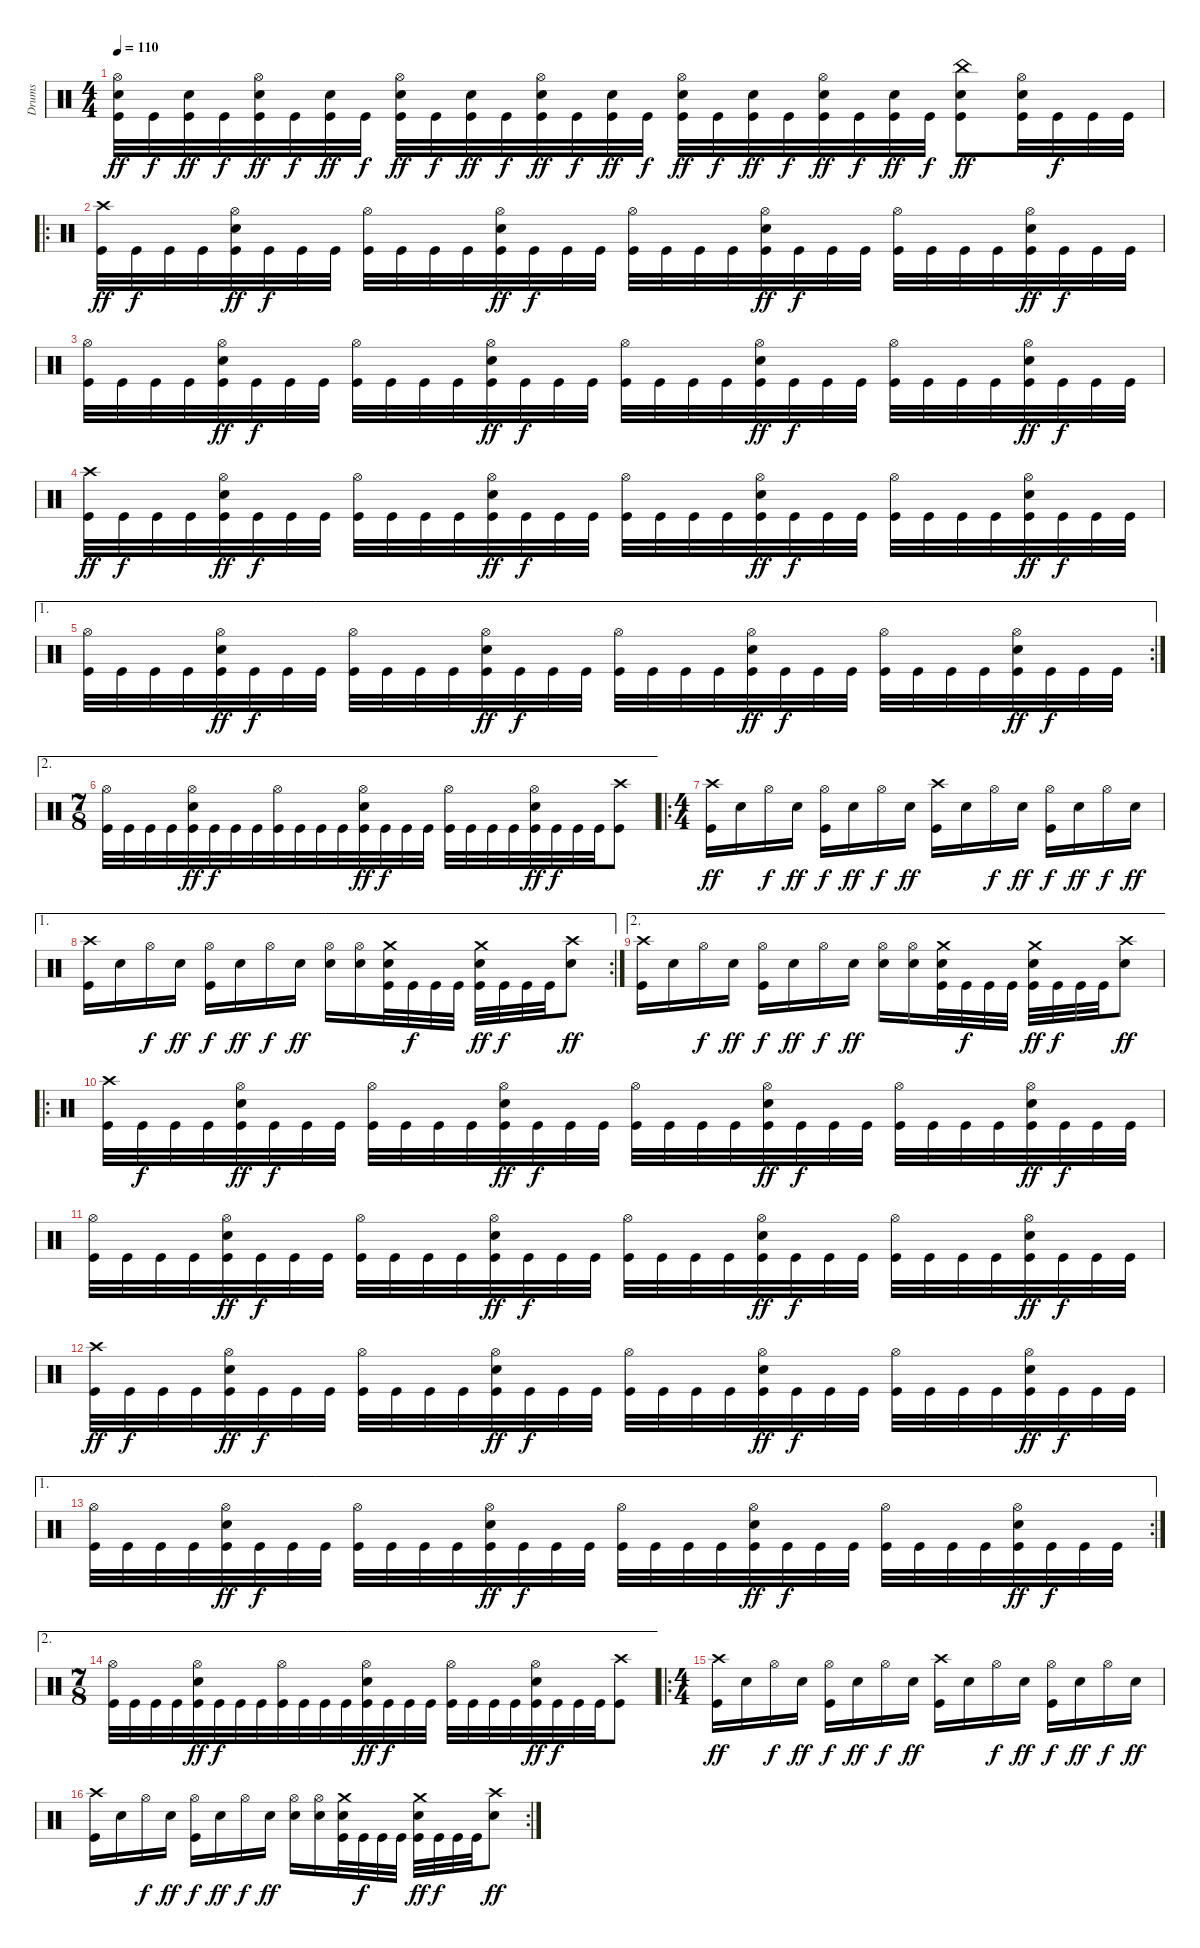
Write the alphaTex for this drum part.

\track ("Drums" "Drums") {instrument percussion}
\staff {score}
\articulation defaults
\ts (4 4)
\tempo 110
\clef neutral
\ks c
("Kick (hit)" "Electric Snare (hit)" "Hi-Hat (open)").32{dy ff} "Kick (hit)".32{dy f} ("Kick (hit)" "Electric Snare (hit)").32{dy ff} "Kick (hit)".32{dy f} ("Kick (hit)" "Electric Snare (hit)" "Hi-Hat (open)").32{dy ff} "Kick (hit)".32{dy f} ("Kick (hit)" "Electric Snare (hit)").32{dy ff} "Kick (hit)".32{dy f} ("Kick (hit)" "Electric Snare (hit)" "Hi-Hat (open)").32{dy ff} "Kick (hit)".32{dy f} ("Kick (hit)" "Electric Snare (hit)").32{dy ff} "Kick (hit)".32{dy f} ("Kick (hit)" "Electric Snare (hit)" "Hi-Hat (open)").32{dy ff} "Kick (hit)".32{dy f} ("Kick (hit)" "Electric Snare (hit)").32{dy ff} "Kick (hit)".32{dy f} ("Kick (hit)" "Electric Snare (hit)" "Hi-Hat (open)").32{dy ff} "Kick (hit)".32{dy f} ("Kick (hit)" "Electric Snare (hit)").32{dy ff} "Kick (hit)".32{dy f} ("Kick (hit)" "Electric Snare (hit)" "Hi-Hat (open)").32{dy ff} "Kick (hit)".32{dy f} ("Kick (hit)" "Electric Snare (hit)").32{dy ff} "Kick (hit)".32{dy f} ("Kick (hit)" "Electric Snare (hit)" "China (hit)").8{dy ff} ("Kick (hit)" "Electric Snare (hit)" "Hi-Hat (open)").32 "Kick (hit)".32{dy f} "Kick (hit)".32 "Kick (hit)".32 |
\ro
("Kick (hit)" "Crash high (hit)").32{dy ff} "Kick (hit)".32{dy f} "Kick (hit)".32 "Kick (hit)".32 ("Kick (hit)" "Electric Snare (hit)" "Hi-Hat (open)").32{dy ff} "Kick (hit)".32{dy f} "Kick (hit)".32 "Kick (hit)".32 ("Kick (hit)" "Hi-Hat (open)").32 "Kick (hit)".32 "Kick (hit)".32 "Kick (hit)".32 ("Kick (hit)" "Electric Snare (hit)" "Hi-Hat (open)").32{dy ff} "Kick (hit)".32{dy f} "Kick (hit)".32 "Kick (hit)".32 ("Kick (hit)" "Hi-Hat (open)").32 "Kick (hit)".32 "Kick (hit)".32 "Kick (hit)".32 ("Kick (hit)" "Electric Snare (hit)" "Hi-Hat (open)").32{dy ff} "Kick (hit)".32{dy f} "Kick (hit)".32 "Kick (hit)".32 ("Kick (hit)" "Hi-Hat (open)").32 "Kick (hit)".32 "Kick (hit)".32 "Kick (hit)".32 ("Kick (hit)" "Electric Snare (hit)" "Hi-Hat (open)").32{dy ff} "Kick (hit)".32{dy f} "Kick (hit)".32 "Kick (hit)".32 |
("Kick (hit)" "Hi-Hat (open)").32 "Kick (hit)".32 "Kick (hit)".32 "Kick (hit)".32 ("Kick (hit)" "Electric Snare (hit)" "Hi-Hat (open)").32{dy ff} "Kick (hit)".32{dy f} "Kick (hit)".32 "Kick (hit)".32 ("Kick (hit)" "Hi-Hat (open)").32 "Kick (hit)".32 "Kick (hit)".32 "Kick (hit)".32 ("Kick (hit)" "Electric Snare (hit)" "Hi-Hat (open)").32{dy ff} "Kick (hit)".32{dy f} "Kick (hit)".32 "Kick (hit)".32 ("Kick (hit)" "Hi-Hat (open)").32 "Kick (hit)".32 "Kick (hit)".32 "Kick (hit)".32 ("Kick (hit)" "Electric Snare (hit)" "Hi-Hat (open)").32{dy ff} "Kick (hit)".32{dy f} "Kick (hit)".32 "Kick (hit)".32 ("Kick (hit)" "Hi-Hat (open)").32 "Kick (hit)".32 "Kick (hit)".32 "Kick (hit)".32 ("Kick (hit)" "Electric Snare (hit)" "Hi-Hat (open)").32{dy ff} "Kick (hit)".32{dy f} "Kick (hit)".32 "Kick (hit)".32 |
("Kick (hit)" "Crash high (hit)").32{dy ff} "Kick (hit)".32{dy f} "Kick (hit)".32 "Kick (hit)".32 ("Kick (hit)" "Electric Snare (hit)" "Hi-Hat (open)").32{dy ff} "Kick (hit)".32{dy f} "Kick (hit)".32 "Kick (hit)".32 ("Kick (hit)" "Hi-Hat (open)").32 "Kick (hit)".32 "Kick (hit)".32 "Kick (hit)".32 ("Kick (hit)" "Electric Snare (hit)" "Hi-Hat (open)").32{dy ff} "Kick (hit)".32{dy f} "Kick (hit)".32 "Kick (hit)".32 ("Kick (hit)" "Hi-Hat (open)").32 "Kick (hit)".32 "Kick (hit)".32 "Kick (hit)".32 ("Kick (hit)" "Electric Snare (hit)" "Hi-Hat (open)").32{dy ff} "Kick (hit)".32{dy f} "Kick (hit)".32 "Kick (hit)".32 ("Kick (hit)" "Hi-Hat (open)").32 "Kick (hit)".32 "Kick (hit)".32 "Kick (hit)".32 ("Kick (hit)" "Electric Snare (hit)" "Hi-Hat (open)").32{dy ff} "Kick (hit)".32{dy f} "Kick (hit)".32 "Kick (hit)".32 |
\ae 1
\rc 2
("Kick (hit)" "Hi-Hat (open)").32 "Kick (hit)".32 "Kick (hit)".32 "Kick (hit)".32 ("Kick (hit)" "Electric Snare (hit)" "Hi-Hat (open)").32{dy ff} "Kick (hit)".32{dy f} "Kick (hit)".32 "Kick (hit)".32 ("Kick (hit)" "Hi-Hat (open)").32 "Kick (hit)".32 "Kick (hit)".32 "Kick (hit)".32 ("Kick (hit)" "Electric Snare (hit)" "Hi-Hat (open)").32{dy ff} "Kick (hit)".32{dy f} "Kick (hit)".32 "Kick (hit)".32 ("Kick (hit)" "Hi-Hat (open)").32 "Kick (hit)".32 "Kick (hit)".32 "Kick (hit)".32 ("Kick (hit)" "Electric Snare (hit)" "Hi-Hat (open)").32{dy ff} "Kick (hit)".32{dy f} "Kick (hit)".32 "Kick (hit)".32 ("Kick (hit)" "Hi-Hat (open)").32 "Kick (hit)".32 "Kick (hit)".32 "Kick (hit)".32 ("Kick (hit)" "Electric Snare (hit)" "Hi-Hat (open)").32{dy ff} "Kick (hit)".32{dy f} "Kick (hit)".32 "Kick (hit)".32 |
\ae 2
\ts (7 8)
("Kick (hit)" "Hi-Hat (open)").32 "Kick (hit)".32 "Kick (hit)".32 "Kick (hit)".32 ("Kick (hit)" "Electric Snare (hit)" "Hi-Hat (open)").32{dy ff} "Kick (hit)".32{dy f} "Kick (hit)".32 "Kick (hit)".32 ("Kick (hit)" "Hi-Hat (open)").32 "Kick (hit)".32 "Kick (hit)".32 "Kick (hit)".32 ("Kick (hit)" "Electric Snare (hit)" "Hi-Hat (open)").32{dy ff} "Kick (hit)".32{dy f} "Kick (hit)".32 "Kick (hit)".32 ("Kick (hit)" "Hi-Hat (open)").32 "Kick (hit)".32 "Kick (hit)".32 "Kick (hit)".32 ("Kick (hit)" "Electric Snare (hit)" "Hi-Hat (open)").32{dy ff} "Kick (hit)".32{dy f} "Kick (hit)".32 "Kick (hit)".32 ("Kick (hit)" "Crash high (hit)").8 |
\ro
\ts (4 4)
("Kick (hit)" "Crash high (hit)").16{dy ff} "Electric Snare (hit)".16 "Hi-Hat (open)".16{dy f} "Electric Snare (hit)".16{dy ff} ("Kick (hit)" "Hi-Hat (open)").16{dy f} "Electric Snare (hit)".16{dy ff} "Hi-Hat (open)".16{dy f} "Electric Snare (hit)".16{dy ff} ("Kick (hit)" "Crash high (hit)").16 "Electric Snare (hit)".16 "Hi-Hat (open)".16{dy f} "Electric Snare (hit)".16{dy ff} ("Kick (hit)" "Hi-Hat (open)").16{dy f} "Electric Snare (hit)".16{dy ff} "Hi-Hat (open)".16{dy f} "Electric Snare (hit)".16{dy ff} |
\ae 1
\rc 2
("Kick (hit)" "Crash high (hit)").16 "Electric Snare (hit)".16 "Hi-Hat (open)".16{dy f} "Electric Snare (hit)".16{dy ff} ("Kick (hit)" "Hi-Hat (open)").16{dy f} "Electric Snare (hit)".16{dy ff} "Hi-Hat (open)".16{dy f} "Electric Snare (hit)".16{dy ff} ("Electric Snare (hit)" "Hi-Hat (open)").16 ("Electric Snare (hit)" "Hi-Hat (open)").16 ("Kick (hit)" "Electric Snare (hit)" "Crash medium (hit)").32 "Kick (hit)".32{dy f} "Kick (hit)".32 "Kick (hit)".32 ("Kick (hit)" "Electric Snare (hit)" "Crash medium (hit)").32{dy ff} "Kick (hit)".32{dy f} "Kick (hit)".32 "Kick (hit)".32 ("Electric Snare (hit)" "Crash high (hit)").8{dy ff} |
\ae 2
("Kick (hit)" "Crash high (hit)").16 "Electric Snare (hit)".16 "Hi-Hat (open)".16{dy f} "Electric Snare (hit)".16{dy ff} ("Kick (hit)" "Hi-Hat (open)").16{dy f} "Electric Snare (hit)".16{dy ff} "Hi-Hat (open)".16{dy f} "Electric Snare (hit)".16{dy ff} ("Electric Snare (hit)" "Hi-Hat (open)").16 ("Electric Snare (hit)" "Hi-Hat (open)").16 ("Kick (hit)" "Electric Snare (hit)" "Crash medium (hit)").32 "Kick (hit)".32{dy f} "Kick (hit)".32 "Kick (hit)".32 ("Kick (hit)" "Electric Snare (hit)" "Crash medium (hit)").32{dy ff} "Kick (hit)".32{dy f} "Kick (hit)".32 "Kick (hit)".32 ("Electric Snare (hit)" "Crash high (hit)").8{dy ff} |
\ro
("Kick (hit)" "Crash high (hit)").32 "Kick (hit)".32{dy f} "Kick (hit)".32 "Kick (hit)".32 ("Kick (hit)" "Electric Snare (hit)" "Hi-Hat (open)").32{dy ff} "Kick (hit)".32{dy f} "Kick (hit)".32 "Kick (hit)".32 ("Kick (hit)" "Hi-Hat (open)").32 "Kick (hit)".32 "Kick (hit)".32 "Kick (hit)".32 ("Kick (hit)" "Electric Snare (hit)" "Hi-Hat (open)").32{dy ff} "Kick (hit)".32{dy f} "Kick (hit)".32 "Kick (hit)".32 ("Kick (hit)" "Hi-Hat (open)").32 "Kick (hit)".32 "Kick (hit)".32 "Kick (hit)".32 ("Kick (hit)" "Electric Snare (hit)" "Hi-Hat (open)").32{dy ff} "Kick (hit)".32{dy f} "Kick (hit)".32 "Kick (hit)".32 ("Kick (hit)" "Hi-Hat (open)").32 "Kick (hit)".32 "Kick (hit)".32 "Kick (hit)".32 ("Kick (hit)" "Electric Snare (hit)" "Hi-Hat (open)").32{dy ff} "Kick (hit)".32{dy f} "Kick (hit)".32 "Kick (hit)".32 |
("Kick (hit)" "Hi-Hat (open)").32 "Kick (hit)".32 "Kick (hit)".32 "Kick (hit)".32 ("Kick (hit)" "Electric Snare (hit)" "Hi-Hat (open)").32{dy ff} "Kick (hit)".32{dy f} "Kick (hit)".32 "Kick (hit)".32 ("Kick (hit)" "Hi-Hat (open)").32 "Kick (hit)".32 "Kick (hit)".32 "Kick (hit)".32 ("Kick (hit)" "Electric Snare (hit)" "Hi-Hat (open)").32{dy ff} "Kick (hit)".32{dy f} "Kick (hit)".32 "Kick (hit)".32 ("Kick (hit)" "Hi-Hat (open)").32 "Kick (hit)".32 "Kick (hit)".32 "Kick (hit)".32 ("Kick (hit)" "Electric Snare (hit)" "Hi-Hat (open)").32{dy ff} "Kick (hit)".32{dy f} "Kick (hit)".32 "Kick (hit)".32 ("Kick (hit)" "Hi-Hat (open)").32 "Kick (hit)".32 "Kick (hit)".32 "Kick (hit)".32 ("Kick (hit)" "Electric Snare (hit)" "Hi-Hat (open)").32{dy ff} "Kick (hit)".32{dy f} "Kick (hit)".32 "Kick (hit)".32 |
("Kick (hit)" "Crash high (hit)").32{dy ff} "Kick (hit)".32{dy f} "Kick (hit)".32 "Kick (hit)".32 ("Kick (hit)" "Electric Snare (hit)" "Hi-Hat (open)").32{dy ff} "Kick (hit)".32{dy f} "Kick (hit)".32 "Kick (hit)".32 ("Kick (hit)" "Hi-Hat (open)").32 "Kick (hit)".32 "Kick (hit)".32 "Kick (hit)".32 ("Kick (hit)" "Electric Snare (hit)" "Hi-Hat (open)").32{dy ff} "Kick (hit)".32{dy f} "Kick (hit)".32 "Kick (hit)".32 ("Kick (hit)" "Hi-Hat (open)").32 "Kick (hit)".32 "Kick (hit)".32 "Kick (hit)".32 ("Kick (hit)" "Electric Snare (hit)" "Hi-Hat (open)").32{dy ff} "Kick (hit)".32{dy f} "Kick (hit)".32 "Kick (hit)".32 ("Kick (hit)" "Hi-Hat (open)").32 "Kick (hit)".32 "Kick (hit)".32 "Kick (hit)".32 ("Kick (hit)" "Electric Snare (hit)" "Hi-Hat (open)").32{dy ff} "Kick (hit)".32{dy f} "Kick (hit)".32 "Kick (hit)".32 |
\ae 1
\rc 2
("Kick (hit)" "Hi-Hat (open)").32 "Kick (hit)".32 "Kick (hit)".32 "Kick (hit)".32 ("Kick (hit)" "Electric Snare (hit)" "Hi-Hat (open)").32{dy ff} "Kick (hit)".32{dy f} "Kick (hit)".32 "Kick (hit)".32 ("Kick (hit)" "Hi-Hat (open)").32 "Kick (hit)".32 "Kick (hit)".32 "Kick (hit)".32 ("Kick (hit)" "Electric Snare (hit)" "Hi-Hat (open)").32{dy ff} "Kick (hit)".32{dy f} "Kick (hit)".32 "Kick (hit)".32 ("Kick (hit)" "Hi-Hat (open)").32 "Kick (hit)".32 "Kick (hit)".32 "Kick (hit)".32 ("Kick (hit)" "Electric Snare (hit)" "Hi-Hat (open)").32{dy ff} "Kick (hit)".32{dy f} "Kick (hit)".32 "Kick (hit)".32 ("Kick (hit)" "Hi-Hat (open)").32 "Kick (hit)".32 "Kick (hit)".32 "Kick (hit)".32 ("Kick (hit)" "Electric Snare (hit)" "Hi-Hat (open)").32{dy ff} "Kick (hit)".32{dy f} "Kick (hit)".32 "Kick (hit)".32 |
\ae 2
\ts (7 8)
("Kick (hit)" "Hi-Hat (open)").32 "Kick (hit)".32 "Kick (hit)".32 "Kick (hit)".32 ("Kick (hit)" "Electric Snare (hit)" "Hi-Hat (open)").32{dy ff} "Kick (hit)".32{dy f} "Kick (hit)".32 "Kick (hit)".32 ("Kick (hit)" "Hi-Hat (open)").32 "Kick (hit)".32 "Kick (hit)".32 "Kick (hit)".32 ("Kick (hit)" "Electric Snare (hit)" "Hi-Hat (open)").32{dy ff} "Kick (hit)".32{dy f} "Kick (hit)".32 "Kick (hit)".32 ("Kick (hit)" "Hi-Hat (open)").32 "Kick (hit)".32 "Kick (hit)".32 "Kick (hit)".32 ("Kick (hit)" "Electric Snare (hit)" "Hi-Hat (open)").32{dy ff} "Kick (hit)".32{dy f} "Kick (hit)".32 "Kick (hit)".32 ("Kick (hit)" "Crash high (hit)").8 |
\ro
\ts (4 4)
("Kick (hit)" "Crash high (hit)").16{dy ff} "Electric Snare (hit)".16 "Hi-Hat (open)".16{dy f} "Electric Snare (hit)".16{dy ff} ("Kick (hit)" "Hi-Hat (open)").16{dy f} "Electric Snare (hit)".16{dy ff} "Hi-Hat (open)".16{dy f} "Electric Snare (hit)".16{dy ff} ("Kick (hit)" "Crash high (hit)").16 "Electric Snare (hit)".16 "Hi-Hat (open)".16{dy f} "Electric Snare (hit)".16{dy ff} ("Kick (hit)" "Hi-Hat (open)").16{dy f} "Electric Snare (hit)".16{dy ff} "Hi-Hat (open)".16{dy f} "Electric Snare (hit)".16{dy ff} |
\rc 2
("Kick (hit)" "Crash high (hit)").16 "Electric Snare (hit)".16 "Hi-Hat (open)".16{dy f} "Electric Snare (hit)".16{dy ff} ("Kick (hit)" "Hi-Hat (open)").16{dy f} "Electric Snare (hit)".16{dy ff} "Hi-Hat (open)".16{dy f} "Electric Snare (hit)".16{dy ff} ("Electric Snare (hit)" "Hi-Hat (open)").16 ("Electric Snare (hit)" "Hi-Hat (open)").16 ("Kick (hit)" "Electric Snare (hit)" "Crash medium (hit)").32 "Kick (hit)".32{dy f} "Kick (hit)".32 "Kick (hit)".32 ("Kick (hit)" "Electric Snare (hit)" "Crash medium (hit)").32{dy ff} "Kick (hit)".32{dy f} "Kick (hit)".32 "Kick (hit)".32 ("Electric Snare (hit)" "Crash high (hit)").8{dy ff}
